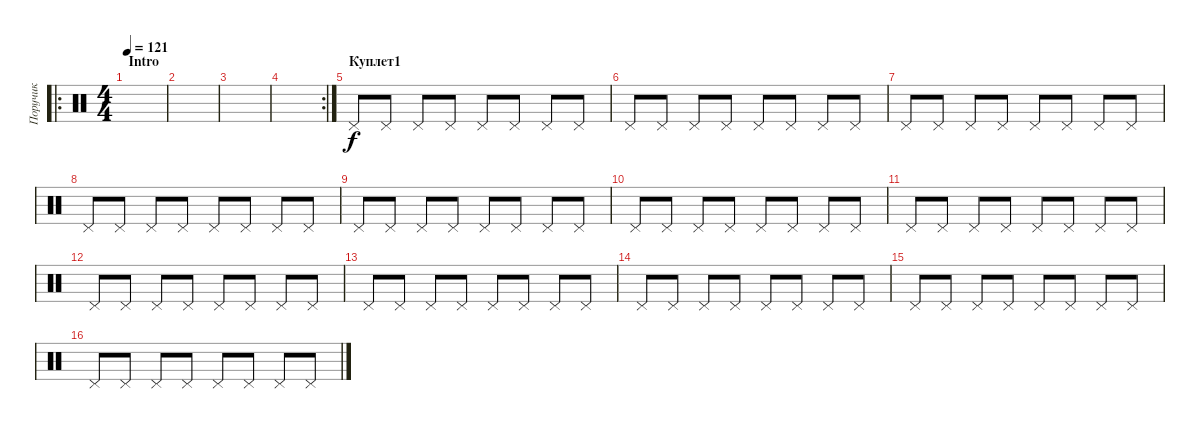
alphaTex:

\track ("Поручик" "Поручик") {instrument percussion}
\staff {score}
\articulation defaults
\ro
\ts (4 4)
\section ("" "Intro")
\tempo 121
\clef neutral
\ks c
|
|
|
\rc 2
|
\section ("" "Куплет1")
"Pedal Hi-Hat (hit)".8{volume 10} "Pedal Hi-Hat (hit)".8 "Pedal Hi-Hat (hit)".8 "Pedal Hi-Hat (hit)".8 "Pedal Hi-Hat (hit)".8 "Pedal Hi-Hat (hit)".8 "Pedal Hi-Hat (hit)".8 "Pedal Hi-Hat (hit)".8 |
"Pedal Hi-Hat (hit)".8 "Pedal Hi-Hat (hit)".8 "Pedal Hi-Hat (hit)".8 "Pedal Hi-Hat (hit)".8 "Pedal Hi-Hat (hit)".8 "Pedal Hi-Hat (hit)".8 "Pedal Hi-Hat (hit)".8 "Pedal Hi-Hat (hit)".8 |
"Pedal Hi-Hat (hit)".8 "Pedal Hi-Hat (hit)".8 "Pedal Hi-Hat (hit)".8 "Pedal Hi-Hat (hit)".8 "Pedal Hi-Hat (hit)".8 "Pedal Hi-Hat (hit)".8 "Pedal Hi-Hat (hit)".8 "Pedal Hi-Hat (hit)".8 |
"Pedal Hi-Hat (hit)".8 "Pedal Hi-Hat (hit)".8 "Pedal Hi-Hat (hit)".8 "Pedal Hi-Hat (hit)".8 "Pedal Hi-Hat (hit)".8 "Pedal Hi-Hat (hit)".8 "Pedal Hi-Hat (hit)".8 "Pedal Hi-Hat (hit)".8 |
"Pedal Hi-Hat (hit)".8 "Pedal Hi-Hat (hit)".8 "Pedal Hi-Hat (hit)".8 "Pedal Hi-Hat (hit)".8 "Pedal Hi-Hat (hit)".8 "Pedal Hi-Hat (hit)".8 "Pedal Hi-Hat (hit)".8 "Pedal Hi-Hat (hit)".8 |
"Pedal Hi-Hat (hit)".8 "Pedal Hi-Hat (hit)".8 "Pedal Hi-Hat (hit)".8 "Pedal Hi-Hat (hit)".8 "Pedal Hi-Hat (hit)".8 "Pedal Hi-Hat (hit)".8 "Pedal Hi-Hat (hit)".8 "Pedal Hi-Hat (hit)".8 |
"Pedal Hi-Hat (hit)".8 "Pedal Hi-Hat (hit)".8 "Pedal Hi-Hat (hit)".8 "Pedal Hi-Hat (hit)".8 "Pedal Hi-Hat (hit)".8 "Pedal Hi-Hat (hit)".8 "Pedal Hi-Hat (hit)".8 "Pedal Hi-Hat (hit)".8 |
"Pedal Hi-Hat (hit)".8 "Pedal Hi-Hat (hit)".8 "Pedal Hi-Hat (hit)".8 "Pedal Hi-Hat (hit)".8 "Pedal Hi-Hat (hit)".8 "Pedal Hi-Hat (hit)".8 "Pedal Hi-Hat (hit)".8 "Pedal Hi-Hat (hit)".8 |
"Pedal Hi-Hat (hit)".8 "Pedal Hi-Hat (hit)".8 "Pedal Hi-Hat (hit)".8 "Pedal Hi-Hat (hit)".8 "Pedal Hi-Hat (hit)".8 "Pedal Hi-Hat (hit)".8 "Pedal Hi-Hat (hit)".8 "Pedal Hi-Hat (hit)".8 |
"Pedal Hi-Hat (hit)".8 "Pedal Hi-Hat (hit)".8 "Pedal Hi-Hat (hit)".8 "Pedal Hi-Hat (hit)".8 "Pedal Hi-Hat (hit)".8 "Pedal Hi-Hat (hit)".8 "Pedal Hi-Hat (hit)".8 "Pedal Hi-Hat (hit)".8 |
"Pedal Hi-Hat (hit)".8 "Pedal Hi-Hat (hit)".8 "Pedal Hi-Hat (hit)".8 "Pedal Hi-Hat (hit)".8 "Pedal Hi-Hat (hit)".8 "Pedal Hi-Hat (hit)".8 "Pedal Hi-Hat (hit)".8 "Pedal Hi-Hat (hit)".8 |
"Pedal Hi-Hat (hit)".8 "Pedal Hi-Hat (hit)".8 "Pedal Hi-Hat (hit)".8 "Pedal Hi-Hat (hit)".8 "Pedal Hi-Hat (hit)".8 "Pedal Hi-Hat (hit)".8 "Pedal Hi-Hat (hit)".8 "Pedal Hi-Hat (hit)".8
